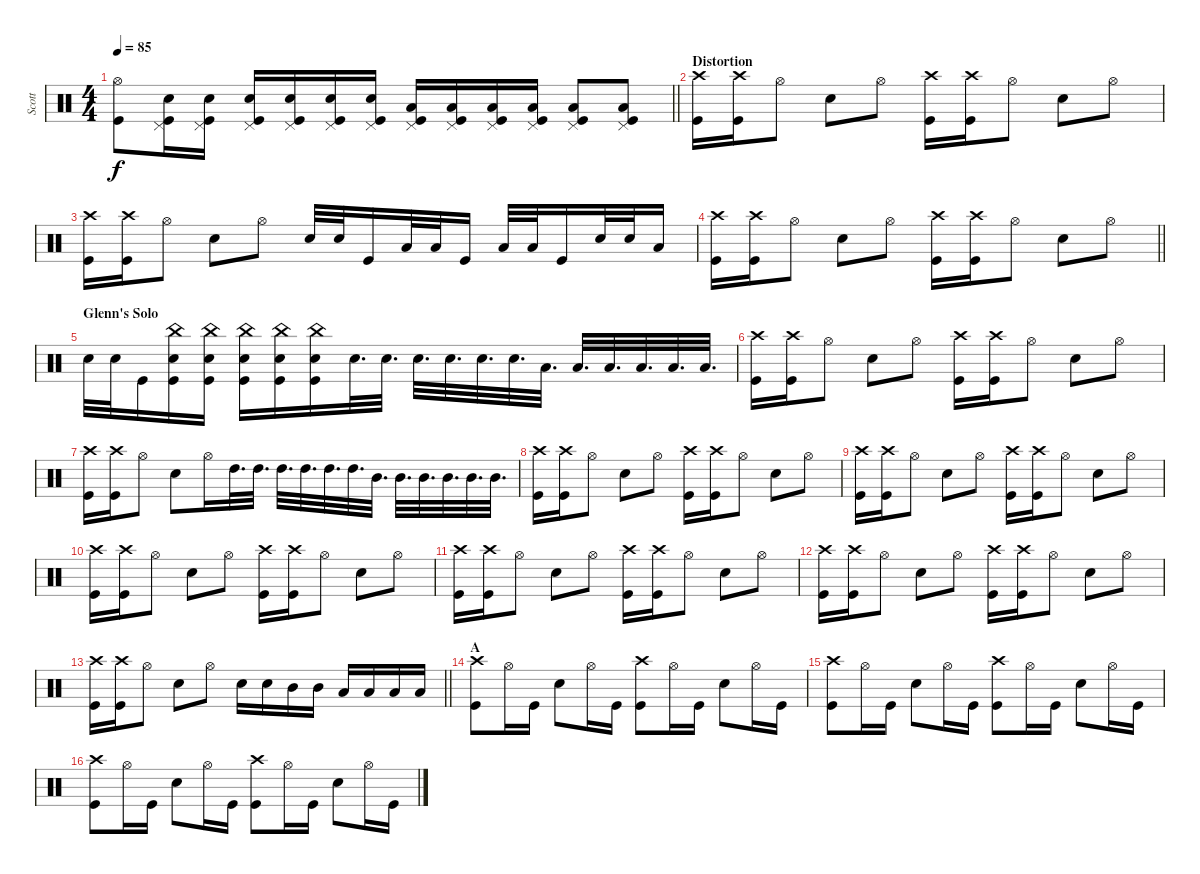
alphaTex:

\track ("Scott" "Scott") {instrument percussion}
\staff {score}
\articulation defaults
\ts (4 4)
\tempo 85
\clef neutral
\barLineRight lightlight
\ks c
("Kick (hit)" "Hi-Hat (open)").8{dy f} ("Kick (hit)" "Snare (hit) 2" "Pedal Hi-Hat (hit)").16 ("Kick (hit)" "Snare (hit) 2" "Pedal Hi-Hat (hit)").16 ("Kick (hit)" "Snare (hit) 2" "Pedal Hi-Hat (hit)").16 ("Kick (hit)" "Snare (hit) 2" "Pedal Hi-Hat (hit)").16 ("Kick (hit)" "Snare (hit) 2" "Pedal Hi-Hat (hit)").16 ("Kick (hit)" "Snare (hit) 2" "Pedal Hi-Hat (hit)").16 ("Kick (hit)" "Low Floor Tom (hit)" "Pedal Hi-Hat (hit)").16 ("Kick (hit)" "Low Floor Tom (hit)" "Pedal Hi-Hat (hit)").16 ("Kick (hit)" "Low Floor Tom (hit)" "Pedal Hi-Hat (hit)").16 ("Kick (hit)" "Low Floor Tom (hit)" "Pedal Hi-Hat (hit)").16 ("Kick (hit)" "Low Floor Tom (hit)" "Pedal Hi-Hat (hit)").8 ("Kick (hit)" "Low Floor Tom (hit)" "Pedal Hi-Hat (hit)").8 |
\section ("" "Distortion")
("Kick (hit)" "Crash high (hit)").16 ("Kick (hit)" "Crash high (hit)").16 "Hi-Hat (open)".8 "Snare (hit) 2".8 "Hi-Hat (open)".8 ("Kick (hit)" "Crash high (hit)").16 ("Kick (hit)" "Crash high (hit)").16 "Hi-Hat (open)".8 "Snare (hit) 2".8 "Hi-Hat (open)".8 |
("Kick (hit)" "Crash high (hit)").16 ("Kick (hit)" "Crash high (hit)").16 "Hi-Hat (open)".8 "Snare (hit) 2".8 "Hi-Hat (open)".8 "Snare (hit) 2".32 "Snare (hit) 2".32 "Kick (hit)".16 "Low Tom (hit)".32 "Low Tom (hit)".32 "Kick (hit)".16 "Low Tom (hit)".32 "Low Tom (hit)".32 "Kick (hit)".16 "Snare (hit) 2".32 "Snare (hit) 2".32 "Low Tom (hit)".16 |
\barLineRight lightlight
("Kick (hit)" "Crash high (hit)").16 ("Kick (hit)" "Crash high (hit)").16 "Hi-Hat (open)".8 "Snare (hit) 2".8 "Hi-Hat (open)".8 ("Kick (hit)" "Crash high (hit)").16 ("Kick (hit)" "Crash high (hit)").16 "Hi-Hat (open)".8 "Snare (hit) 2".8 "Hi-Hat (open)".8 |
\section ("" "Glenn's Solo")
"Snare (hit) 2".32 "Snare (hit) 2".32 "Kick (hit)".16 ("Snare (hit) 2" "Kick (hit)" "China (hit)").16 ("Snare (hit) 2" "Kick (hit)" "China (hit)").16 ("Snare (hit) 2" "Kick (hit)" "China (hit)").16 ("Snare (hit) 2" "Kick (hit)" "China (hit)").16 ("Snare (hit) 2" "Kick (hit)" "China (hit)").16 "Snare (hit) 2".32{d} "Snare (hit) 2".32{d} "Snare (hit) 2".32{d} "Snare (hit) 2".32{d} "Snare (hit) 2".32{d} "Snare (hit) 2".32{d} "Low Tom (hit)".32{d} "Low Tom (hit)".32{d} "Low Tom (hit)".32{d} "Low Tom (hit)".32{d} "Low Tom (hit)".32{d} "Low Tom (hit)".32{d} |
("Kick (hit)" "Crash high (hit)").16 ("Kick (hit)" "Crash high (hit)").16 "Hi-Hat (open)".8 "Snare (hit) 2".8 "Hi-Hat (open)".8 ("Kick (hit)" "Crash high (hit)").16 ("Kick (hit)" "Crash high (hit)").16 "Hi-Hat (open)".8 "Snare (hit) 2".8 "Hi-Hat (open)".8 |
("Kick (hit)" "Crash high (hit)").16 ("Kick (hit)" "Crash high (hit)").16 "Hi-Hat (open)".8 "Snare (hit) 2".8 "Hi-Hat (open)".16 "High Tom (hit)".32{d} "High Tom (hit)".32{d} "High Tom (hit)".32{d} "High Tom (hit)".32{d} "High Tom (hit)".32{d} "High Tom (hit)".32{d} "Mid Tom (hit)".32{d} "Mid Tom (hit)".32{d} "Mid Tom (hit)".32{d} "Mid Tom (hit)".32{d} "Mid Tom (hit)".32{d} "Mid Tom (hit)".32{d} |
("Kick (hit)" "Crash high (hit)").16 ("Kick (hit)" "Crash high (hit)").16 "Hi-Hat (open)".8 "Snare (hit) 2".8 "Hi-Hat (open)".8 ("Kick (hit)" "Crash high (hit)").16 ("Kick (hit)" "Crash high (hit)").16 "Hi-Hat (open)".8 "Snare (hit) 2".8 "Hi-Hat (open)".8 |
("Kick (hit)" "Crash high (hit)").16 ("Kick (hit)" "Crash high (hit)").16 "Hi-Hat (open)".8 "Snare (hit) 2".8 "Hi-Hat (open)".8 ("Kick (hit)" "Crash high (hit)").16 ("Kick (hit)" "Crash high (hit)").16 "Hi-Hat (open)".8 "Snare (hit) 2".8 "Hi-Hat (open)".8 |
("Kick (hit)" "Crash high (hit)").16 ("Kick (hit)" "Crash high (hit)").16 "Hi-Hat (open)".8 "Snare (hit) 2".8 "Hi-Hat (open)".8 ("Kick (hit)" "Crash high (hit)").16 ("Kick (hit)" "Crash high (hit)").16 "Hi-Hat (open)".8 "Snare (hit) 2".8 "Hi-Hat (open)".8 |
("Kick (hit)" "Crash high (hit)").16 ("Kick (hit)" "Crash high (hit)").16 "Hi-Hat (open)".8 "Snare (hit) 2".8 "Hi-Hat (open)".8 ("Kick (hit)" "Crash high (hit)").16 ("Kick (hit)" "Crash high (hit)").16 "Hi-Hat (open)".8 "Snare (hit) 2".8 "Hi-Hat (open)".8 |
("Kick (hit)" "Crash high (hit)").16 ("Kick (hit)" "Crash high (hit)").16 "Hi-Hat (open)".8 "Snare (hit) 2".8 "Hi-Hat (open)".8 ("Kick (hit)" "Crash high (hit)").16 ("Kick (hit)" "Crash high (hit)").16 "Hi-Hat (open)".8 "Snare (hit) 2".8 "Hi-Hat (open)".8 |
\barLineRight lightlight
("Kick (hit)" "Crash high (hit)").16 ("Kick (hit)" "Crash high (hit)").16 "Hi-Hat (open)".8 "Snare (hit) 2".8 "Hi-Hat (open)".8 "Snare (hit) 2".16 "Snare (hit) 2".16 "Mid Tom (hit)".16 "Mid Tom (hit)".16 "Low Tom (hit)".16 "Low Tom (hit)".16 "Low Floor Tom (hit)".16 "Low Floor Tom (hit)".16 |
\section ("" "A")
("Kick (hit)" "Crash high (hit)").8 "Hi-Hat (open)".16 "Kick (hit)".16 "Snare (hit) 2".8 "Hi-Hat (open)".16 "Kick (hit)".16 ("Kick (hit)" "Crash high (hit)").8 "Hi-Hat (open)".16 "Kick (hit)".16 "Snare (hit) 2".8 "Hi-Hat (open)".16 "Kick (hit)".16 |
("Kick (hit)" "Crash high (hit)").8 "Hi-Hat (open)".16 "Kick (hit)".16 "Snare (hit) 2".8 "Hi-Hat (open)".16 "Kick (hit)".16 ("Kick (hit)" "Crash high (hit)").8 "Hi-Hat (open)".16 "Kick (hit)".16 "Snare (hit) 2".8 "Hi-Hat (open)".16 "Kick (hit)".16 |
("Kick (hit)" "Crash high (hit)").8 "Hi-Hat (open)".16 "Kick (hit)".16 "Snare (hit) 2".8 "Hi-Hat (open)".16 "Kick (hit)".16 ("Kick (hit)" "Crash high (hit)").8 "Hi-Hat (open)".16 "Kick (hit)".16 "Snare (hit) 2".8 "Hi-Hat (open)".16 "Kick (hit)".16
